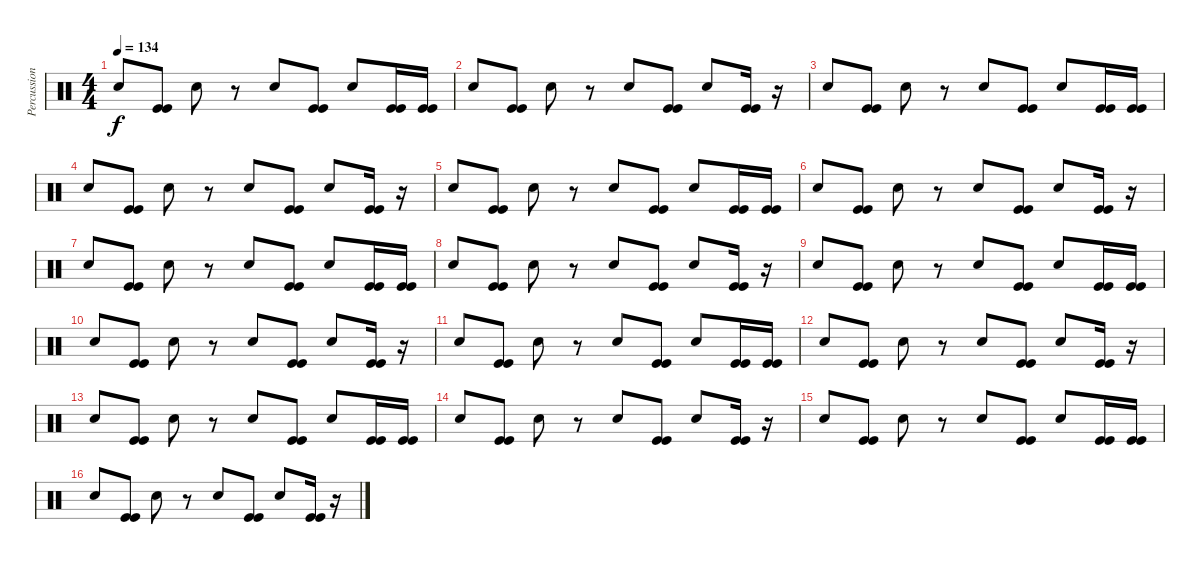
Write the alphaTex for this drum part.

\track ("Percussion (Rico)" "Percussion") {instrument percussion}
\staff {score}
\articulation defaults
\ts (4 4)
\tempo 134
\clef neutral
\ks c "Electric Snare (hit)".8{dy f}
("Kick (hit)" "Kick (hit)").8 "Electric Snare (hit)".8 r.8 "Electric Snare (hit)".8 ("Kick (hit)" "Kick (hit)").8 "Electric Snare (hit)".8 ("Kick (hit)" "Kick (hit)").16 ("Kick (hit)" "Kick (hit)").16 |
"Electric Snare (hit)".8 ("Kick (hit)" "Kick (hit)").8 "Electric Snare (hit)".8 r.8 "Electric Snare (hit)".8 ("Kick (hit)" "Kick (hit)").8 "Electric Snare (hit)".8 ("Kick (hit)" "Kick (hit)").16 r.16 |
"Electric Snare (hit)".8 ("Kick (hit)" "Kick (hit)").8 "Electric Snare (hit)".8 r.8 "Electric Snare (hit)".8 ("Kick (hit)" "Kick (hit)").8 "Electric Snare (hit)".8 ("Kick (hit)" "Kick (hit)").16 ("Kick (hit)" "Kick (hit)").16 |
"Electric Snare (hit)".8 ("Kick (hit)" "Kick (hit)").8 "Electric Snare (hit)".8 r.8 "Electric Snare (hit)".8 ("Kick (hit)" "Kick (hit)").8 "Electric Snare (hit)".8 ("Kick (hit)" "Kick (hit)").16 r.16 |
"Electric Snare (hit)".8 ("Kick (hit)" "Kick (hit)").8 "Electric Snare (hit)".8 r.8 "Electric Snare (hit)".8 ("Kick (hit)" "Kick (hit)").8 "Electric Snare (hit)".8 ("Kick (hit)" "Kick (hit)").16 ("Kick (hit)" "Kick (hit)").16 |
"Electric Snare (hit)".8 ("Kick (hit)" "Kick (hit)").8 "Electric Snare (hit)".8 r.8 "Electric Snare (hit)".8 ("Kick (hit)" "Kick (hit)").8 "Electric Snare (hit)".8 ("Kick (hit)" "Kick (hit)").16 r.16 |
"Electric Snare (hit)".8 ("Kick (hit)" "Kick (hit)").8 "Electric Snare (hit)".8 r.8 "Electric Snare (hit)".8 ("Kick (hit)" "Kick (hit)").8 "Electric Snare (hit)".8 ("Kick (hit)" "Kick (hit)").16 ("Kick (hit)" "Kick (hit)").16 |
"Electric Snare (hit)".8 ("Kick (hit)" "Kick (hit)").8 "Electric Snare (hit)".8 r.8 "Electric Snare (hit)".8 ("Kick (hit)" "Kick (hit)").8 "Electric Snare (hit)".8 ("Kick (hit)" "Kick (hit)").16 r.16 |
"Electric Snare (hit)".8 ("Kick (hit)" "Kick (hit)").8 "Electric Snare (hit)".8 r.8 "Electric Snare (hit)".8 ("Kick (hit)" "Kick (hit)").8 "Electric Snare (hit)".8 ("Kick (hit)" "Kick (hit)").16 ("Kick (hit)" "Kick (hit)").16 |
"Electric Snare (hit)".8 ("Kick (hit)" "Kick (hit)").8 "Electric Snare (hit)".8 r.8 "Electric Snare (hit)".8 ("Kick (hit)" "Kick (hit)").8 "Electric Snare (hit)".8 ("Kick (hit)" "Kick (hit)").16 r.16 |
"Electric Snare (hit)".8 ("Kick (hit)" "Kick (hit)").8 "Electric Snare (hit)".8 r.8 "Electric Snare (hit)".8 ("Kick (hit)" "Kick (hit)").8 "Electric Snare (hit)".8 ("Kick (hit)" "Kick (hit)").16 ("Kick (hit)" "Kick (hit)").16 |
"Electric Snare (hit)".8 ("Kick (hit)" "Kick (hit)").8 "Electric Snare (hit)".8 r.8 "Electric Snare (hit)".8 ("Kick (hit)" "Kick (hit)").8 "Electric Snare (hit)".8 ("Kick (hit)" "Kick (hit)").16 r.16 |
"Electric Snare (hit)".8 ("Kick (hit)" "Kick (hit)").8 "Electric Snare (hit)".8 r.8 "Electric Snare (hit)".8 ("Kick (hit)" "Kick (hit)").8 "Electric Snare (hit)".8 ("Kick (hit)" "Kick (hit)").16 ("Kick (hit)" "Kick (hit)").16 |
"Electric Snare (hit)".8 ("Kick (hit)" "Kick (hit)").8 "Electric Snare (hit)".8 r.8 "Electric Snare (hit)".8 ("Kick (hit)" "Kick (hit)").8 "Electric Snare (hit)".8 ("Kick (hit)" "Kick (hit)").16 r.16 |
"Electric Snare (hit)".8 ("Kick (hit)" "Kick (hit)").8 "Electric Snare (hit)".8 r.8 "Electric Snare (hit)".8 ("Kick (hit)" "Kick (hit)").8 "Electric Snare (hit)".8 ("Kick (hit)" "Kick (hit)").16 ("Kick (hit)" "Kick (hit)").16 |
"Electric Snare (hit)".8 ("Kick (hit)" "Kick (hit)").8 "Electric Snare (hit)".8 r.8 "Electric Snare (hit)".8 ("Kick (hit)" "Kick (hit)").8 "Electric Snare (hit)".8 ("Kick (hit)" "Kick (hit)").16 r.16
